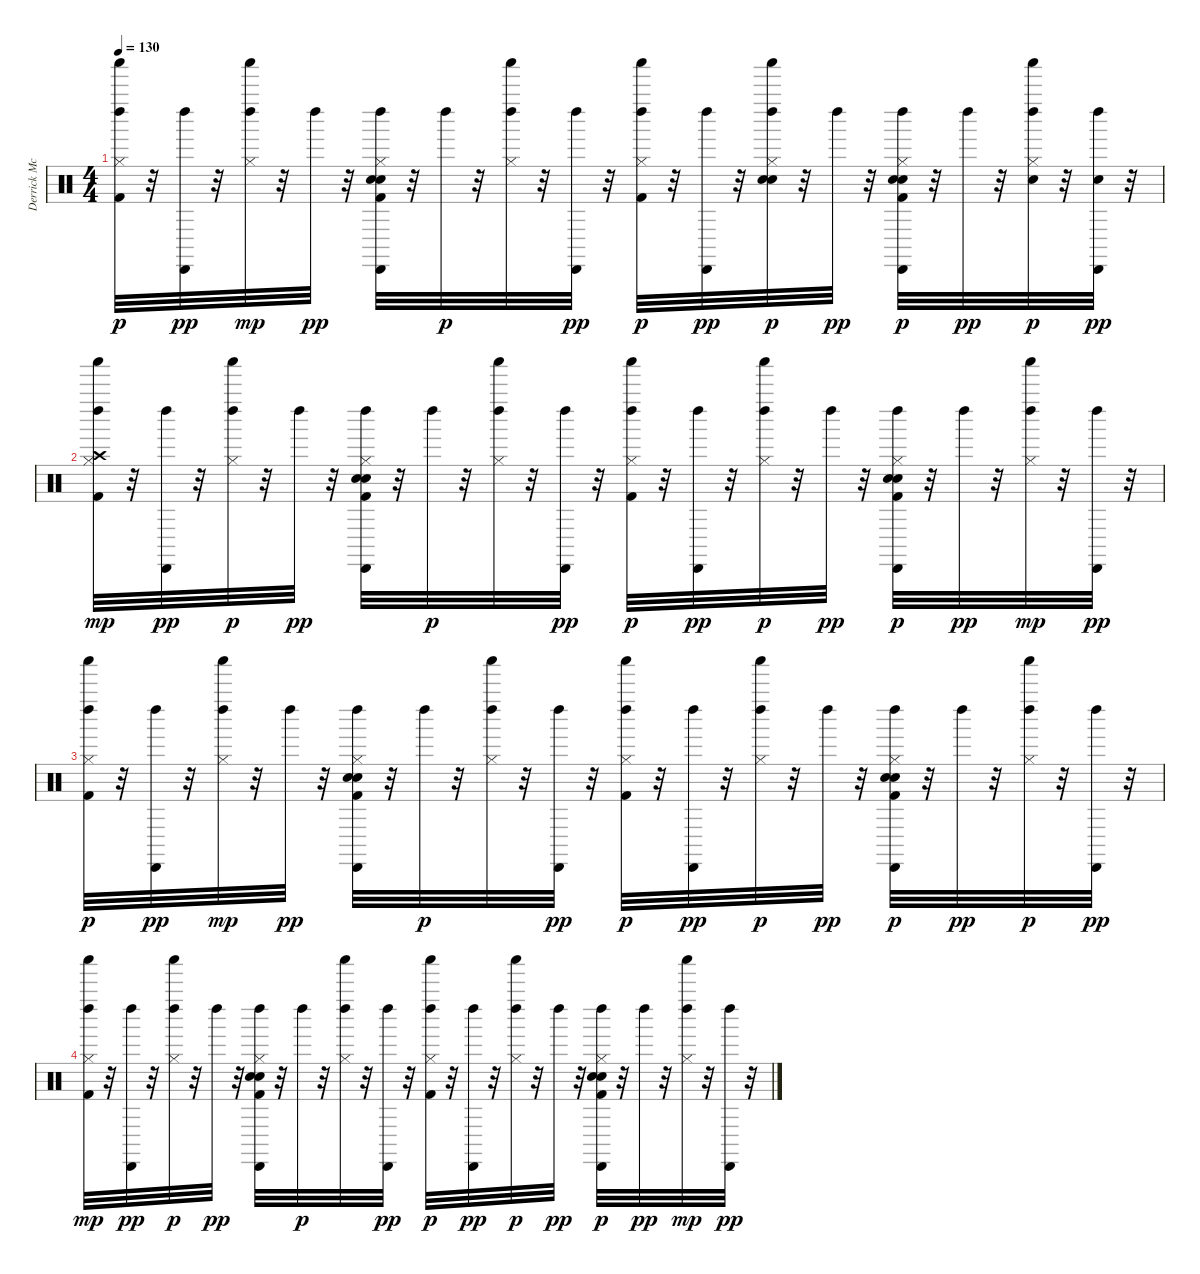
\track ("Derrick McKenzie\\Sola Akingbola - Drums" "Derrick Mc") {instrument percussion}
\staff {score}
\articulation defaults
\ts (4 4)
\tempo 130
\clef neutral
\ks c
("Kick (hit) 2" "Hi-Hat (closed)" "Left Maraca (hit)" "Shaker (hit)").32{dy p} r.32 ("Cabasa (hit)" "Left Maraca (hit)").32{dy pp} r.32 ("Hi-Hat (closed)" "Left Maraca (hit)" "Shaker (hit)").32{dy mp} r.32 "Left Maraca (hit)".32{dy pp} r.32 ("Kick (hit) 2" "Hand Clap (hit)" "Electric Snare (hit)" "Hi-Hat (closed)" "Cabasa (hit)" "Left Maraca (hit)").32 r.32 "Left Maraca (hit)".32{dy p} r.32 ("Hi-Hat (closed)" "Left Maraca (hit)" "Shaker (hit)").32 r.32 ("Cabasa (hit)" "Left Maraca (hit)").32{dy pp} r.32 ("Kick (hit) 2" "Hi-Hat (closed)" "Left Maraca (hit)" "Shaker (hit)").32{dy p} r.32 ("Cabasa (hit)" "Left Maraca (hit)").32{dy pp} r.32 ("Hand Clap (hit)" "Electric Snare (hit)" "Hi-Hat (closed)" "Left Maraca (hit)" "Shaker (hit)").32{dy p} r.32 "Left Maraca (hit)".32{dy pp} r.32 ("Kick (hit) 2" "Hand Clap (hit)" "Electric Snare (hit)" "Hi-Hat (closed)" "Cabasa (hit)" "Left Maraca (hit)").32{dy p} r.32 "Left Maraca (hit)".32{dy pp} r.32 ("Electric Snare (hit)" "Hi-Hat (closed)" "Left Maraca (hit)" "Shaker (hit)").32{dy p} r.32 ("Electric Snare (hit)" "Cabasa (hit)" "Left Maraca (hit)").32{dy pp} r.32 |
("Kick (hit) 2" "Hi-Hat (closed)" "Crash high (hit)" "Left Maraca (hit)" "Shaker (hit)").32{dy mp} r.32 ("Cabasa (hit)" "Left Maraca (hit)").32{dy pp} r.32 ("Hi-Hat (closed)" "Left Maraca (hit)" "Shaker (hit)").32{dy p} r.32 "Left Maraca (hit)".32{dy pp} r.32 ("Kick (hit) 2" "Hand Clap (hit)" "Electric Snare (hit)" "Hi-Hat (closed)" "Cabasa (hit)" "Left Maraca (hit)").32 r.32 "Left Maraca (hit)".32{dy p} r.32 ("Hi-Hat (closed)" "Left Maraca (hit)" "Shaker (hit)").32 r.32 ("Cabasa (hit)" "Left Maraca (hit)").32{dy pp} r.32 ("Kick (hit) 2" "Hi-Hat (closed)" "Left Maraca (hit)" "Shaker (hit)").32{dy p} r.32 ("Cabasa (hit)" "Left Maraca (hit)").32{dy pp} r.32 ("Hi-Hat (closed)" "Left Maraca (hit)" "Shaker (hit)").32{dy p} r.32 "Left Maraca (hit)".32{dy pp} r.32 ("Kick (hit) 2" "Hand Clap (hit)" "Electric Snare (hit)" "Hi-Hat (closed)" "Cabasa (hit)" "Left Maraca (hit)").32{dy p} r.32 "Left Maraca (hit)".32{dy pp} r.32 ("Hi-Hat (closed)" "Left Maraca (hit)" "Shaker (hit)").32{dy mp} r.32 ("Cabasa (hit)" "Left Maraca (hit)").32{dy pp} r.32 |
("Kick (hit) 2" "Hi-Hat (closed)" "Left Maraca (hit)" "Shaker (hit)").32{dy p} r.32 ("Cabasa (hit)" "Left Maraca (hit)").32{dy pp} r.32 ("Hi-Hat (closed)" "Left Maraca (hit)" "Shaker (hit)").32{dy mp} r.32 "Left Maraca (hit)".32{dy pp} r.32 ("Kick (hit) 2" "Hand Clap (hit)" "Electric Snare (hit)" "Hi-Hat (closed)" "Cabasa (hit)" "Left Maraca (hit)").32 r.32 "Left Maraca (hit)".32{dy p} r.32 ("Hi-Hat (closed)" "Left Maraca (hit)" "Shaker (hit)").32 r.32 ("Cabasa (hit)" "Left Maraca (hit)").32{dy pp} r.32 ("Kick (hit) 2" "Hi-Hat (closed)" "Left Maraca (hit)" "Shaker (hit)").32{dy p} r.32 ("Cabasa (hit)" "Left Maraca (hit)").32{dy pp} r.32 ("Hi-Hat (closed)" "Left Maraca (hit)" "Shaker (hit)").32{dy p} r.32 "Left Maraca (hit)".32{dy pp} r.32 ("Kick (hit) 2" "Hand Clap (hit)" "Electric Snare (hit)" "Hi-Hat (closed)" "Cabasa (hit)" "Left Maraca (hit)").32{dy p} r.32 "Left Maraca (hit)".32{dy pp} r.32 ("Hi-Hat (closed)" "Left Maraca (hit)" "Shaker (hit)").32{dy p} r.32 ("Cabasa (hit)" "Left Maraca (hit)").32{dy pp} r.32 |
("Kick (hit) 2" "Hi-Hat (closed)" "Left Maraca (hit)" "Shaker (hit)").32{dy mp} r.32 ("Cabasa (hit)" "Left Maraca (hit)").32{dy pp} r.32 ("Hi-Hat (closed)" "Left Maraca (hit)" "Shaker (hit)").32{dy p} r.32 "Left Maraca (hit)".32{dy pp} r.32 ("Kick (hit) 2" "Hand Clap (hit)" "Electric Snare (hit)" "Hi-Hat (closed)" "Cabasa (hit)" "Left Maraca (hit)").32 r.32 "Left Maraca (hit)".32{dy p} r.32 ("Hi-Hat (closed)" "Left Maraca (hit)" "Shaker (hit)").32 r.32 ("Cabasa (hit)" "Left Maraca (hit)").32{dy pp} r.32 ("Kick (hit) 2" "Hi-Hat (closed)" "Left Maraca (hit)" "Shaker (hit)").32{dy p} r.32 ("Cabasa (hit)" "Left Maraca (hit)").32{dy pp} r.32 ("Hi-Hat (closed)" "Left Maraca (hit)" "Shaker (hit)").32{dy p} r.32 "Left Maraca (hit)".32{dy pp} r.32 ("Kick (hit) 2" "Hand Clap (hit)" "Electric Snare (hit)" "Hi-Hat (closed)" "Cabasa (hit)" "Left Maraca (hit)").32{dy p} r.32 "Left Maraca (hit)".32{dy pp} r.32 ("Hi-Hat (closed)" "Left Maraca (hit)" "Shaker (hit)").32{dy mp} r.32 ("Cabasa (hit)" "Left Maraca (hit)").32{dy pp} r.32
